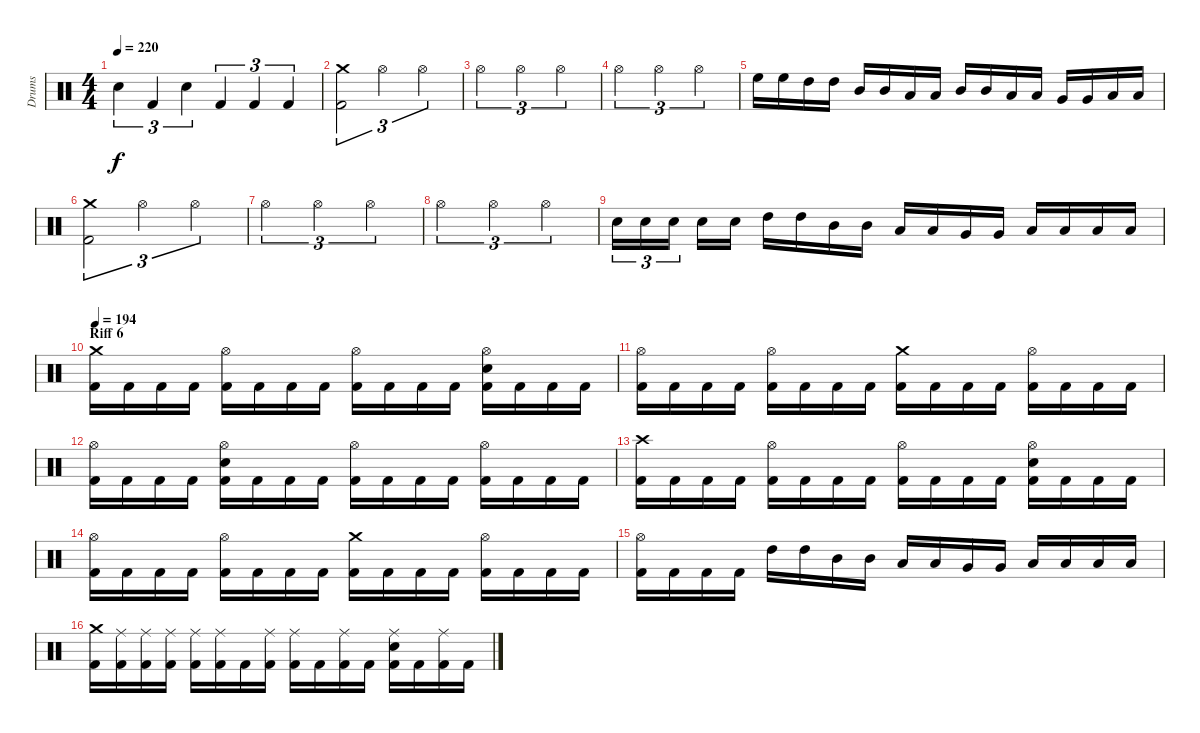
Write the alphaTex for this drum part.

\track ("Drums" "Drums") {instrument percussion}
\staff {score}
\articulation defaults
\ts (4 4)
\tempo 220
\clef neutral
\ks c "Electric Snare (hit)".4{tu (3 2) dy f} "Kick (hit) 2".4{tu (3 2)} "Electric Snare (hit)".4{tu (3 2)} "Kick (hit) 2".4{tu (3 2)} "Kick (hit) 2".4{tu (3 2)} "Kick (hit) 2".4{tu (3 2)}
|
("Crash medium (hit)" "Kick (hit) 2").2{tu (3 2)} "Hi-Hat (open)".2{tu (3 2)} "Hi-Hat (open)".2{tu (3 2)} |
"Hi-Hat (open)".2{tu (3 2)} "Hi-Hat (open)".2{tu (3 2)} "Hi-Hat (open)".2{tu (3 2)} |
"Hi-Hat (open)".2{tu (3 2)} "Hi-Hat (open)".2{tu (3 2)} "Hi-Hat (open)".2{tu (3 2)} |
"High Floor Tom (hit)".16 "High Floor Tom (hit)".16 "High Tom (hit)".16 "High Tom (hit)".16 "Mid Tom (hit)".16 "Mid Tom (hit)".16 "Low Tom (hit)".16 "Low Tom (hit)".16 "Mid Tom (hit)".16 "Mid Tom (hit)".16 "Low Tom (hit)".16 "Low Tom (hit)".16 "Very Low Tom (hit)".16 "Very Low Tom (hit)".16 "Low Floor Tom (hit)".16 "Low Floor Tom (hit)".16 |
("Crash medium (hit)" "Kick (hit) 2").2{tu (3 2)} "Hi-Hat (open)".2{tu (3 2)} "Hi-Hat (open)".2{tu (3 2)} |
"Hi-Hat (open)".2{tu (3 2)} "Hi-Hat (open)".2{tu (3 2)} "Hi-Hat (open)".2{tu (3 2)} |
"Hi-Hat (open)".2{tu (3 2)} "Hi-Hat (open)".2{tu (3 2)} "Hi-Hat (open)".2{tu (3 2)} |
"Electric Snare (hit)".16{tu (3 2)} "Electric Snare (hit)".16{tu (3 2)} "Electric Snare (hit)".16{tu (3 2)} "Electric Snare (hit)".16 "Electric Snare (hit)".16 "High Tom (hit)".16 "High Tom (hit)".16 "Mid Tom (hit)".16 "Mid Tom (hit)".16 "Low Tom (hit)".16 "Low Tom (hit)".16 "Very Low Tom (hit)".16 "Very Low Tom (hit)".16 "Low Floor Tom (hit)".16 "Low Floor Tom (hit)".16 "Low Floor Tom (hit)".16 "Low Floor Tom (hit)".16 |
\section ("" "Riff 6")
\tempo 194
("Crash medium (hit)" "Kick (hit) 2").16 "Kick (hit) 2".16 "Kick (hit) 2".16 "Kick (hit) 2".16 ("Hi-Hat (open)" "Kick (hit) 2").16 "Kick (hit) 2".16 "Kick (hit) 2".16 "Kick (hit) 2".16 ("Hi-Hat (open)" "Kick (hit) 2").16 "Kick (hit) 2".16 "Kick (hit) 2".16 "Kick (hit) 2".16 ("Hi-Hat (open)" "Electric Snare (hit)" "Kick (hit) 2").16 "Kick (hit) 2".16 "Kick (hit) 2".16 "Kick (hit) 2".16 |
("Hi-Hat (open)" "Kick (hit) 2").16 "Kick (hit) 2".16 "Kick (hit) 2".16 "Kick (hit) 2".16 ("Hi-Hat (open)" "Kick (hit) 2").16 "Kick (hit) 2".16 "Kick (hit) 2".16 "Kick (hit) 2".16 ("Crash medium (hit)" "Kick (hit) 2").16 "Kick (hit) 2".16 "Kick (hit) 2".16 "Kick (hit) 2".16 ("Hi-Hat (open)" "Kick (hit) 2").16 "Kick (hit) 2".16 "Kick (hit) 2".16 "Kick (hit) 2".16 |
("Hi-Hat (open)" "Kick (hit) 2").16 "Kick (hit) 2".16 "Kick (hit) 2".16 "Kick (hit) 2".16 ("Hi-Hat (open)" "Electric Snare (hit)" "Kick (hit) 2").16 "Kick (hit) 2".16 "Kick (hit) 2".16 "Kick (hit) 2".16 ("Hi-Hat (open)" "Kick (hit) 2").16 "Kick (hit) 2".16 "Kick (hit) 2".16 "Kick (hit) 2".16 ("Hi-Hat (open)" "Kick (hit) 2").16 "Kick (hit) 2".16 "Kick (hit) 2".16 "Kick (hit) 2".16 |
("Crash high (hit)" "Kick (hit) 2").16 "Kick (hit) 2".16 "Kick (hit) 2".16 "Kick (hit) 2".16 ("Hi-Hat (open)" "Kick (hit) 2").16 "Kick (hit) 2".16 "Kick (hit) 2".16 "Kick (hit) 2".16 ("Hi-Hat (open)" "Kick (hit) 2").16 "Kick (hit) 2".16 "Kick (hit) 2".16 "Kick (hit) 2".16 ("Hi-Hat (open)" "Electric Snare (hit)" "Kick (hit) 2").16 "Kick (hit) 2".16 "Kick (hit) 2".16 "Kick (hit) 2".16 |
("Hi-Hat (open)" "Kick (hit) 2").16 "Kick (hit) 2".16 "Kick (hit) 2".16 "Kick (hit) 2".16 ("Hi-Hat (open)" "Kick (hit) 2").16 "Kick (hit) 2".16 "Kick (hit) 2".16 "Kick (hit) 2".16 ("Crash medium (hit)" "Kick (hit) 2").16 "Kick (hit) 2".16 "Kick (hit) 2".16 "Kick (hit) 2".16 ("Hi-Hat (open)" "Kick (hit) 2").16 "Kick (hit) 2".16 "Kick (hit) 2".16 "Kick (hit) 2".16 |
("Hi-Hat (open)" "Kick (hit) 2").16 "Kick (hit) 2".16 "Kick (hit) 2".16 "Kick (hit) 2".16 "High Tom (hit)".16 "High Tom (hit)".16 "Mid Tom (hit)".16 "Mid Tom (hit)".16 "Low Tom (hit)".16 "Low Tom (hit)".16 "Very Low Tom (hit)".16 "Very Low Tom (hit)".16 "Low Floor Tom (hit)".16 "Low Floor Tom (hit)".16 "Low Floor Tom (hit)".16 "Low Floor Tom (hit)".16 |
("Crash medium (hit)" "Kick (hit) 2").16 ("Ride (middle)" "Kick (hit) 2").16 ("Ride (middle)" "Kick (hit) 2").16 ("Ride (middle)" "Kick (hit) 2").16 ("Ride (middle)" "Kick (hit) 2").16 ("Ride (middle)" "Kick (hit) 2").16 "Kick (hit) 2".16 ("Ride (middle)" "Kick (hit) 2").16 ("Ride (middle)" "Kick (hit) 2").16 "Kick (hit) 2".16 ("Ride (middle)" "Kick (hit) 2").16 "Kick (hit) 2".16 ("Ride (middle)" "Electric Snare (hit)" "Kick (hit) 2").16 "Kick (hit) 2".16 ("Ride (middle)" "Kick (hit) 2").16 "Kick (hit) 2".16
